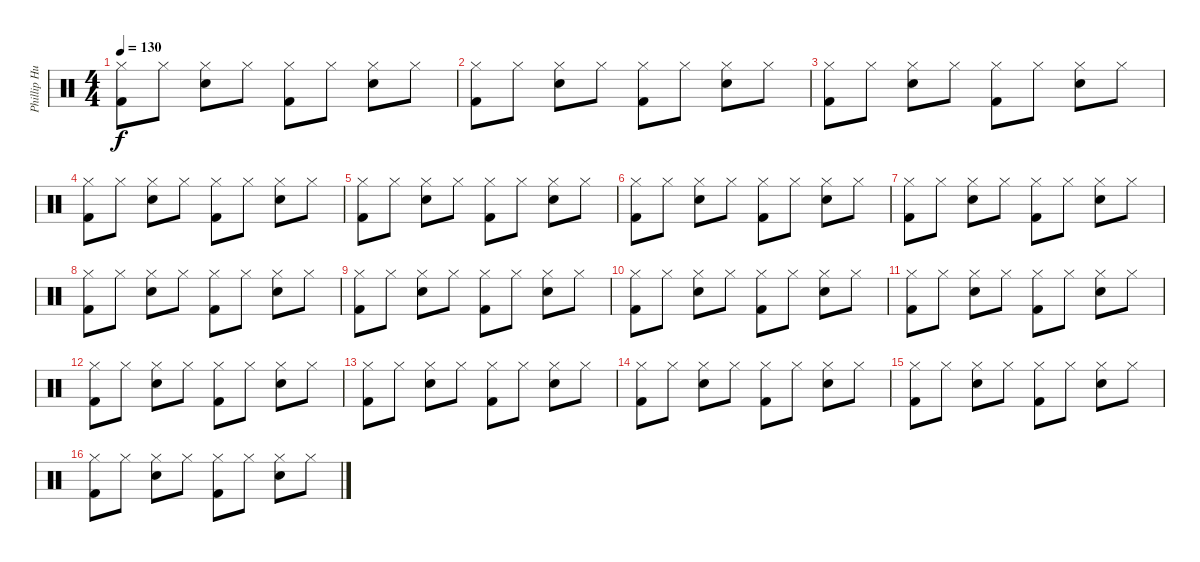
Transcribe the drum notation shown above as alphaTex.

\track ("Phillip Hungh" "Phillip Hu") {instrument percussion}
\staff {score}
\articulation defaults
\ts (4 4)
\tempo 130
\clef neutral
\ks c
("Hi-Hat (closed)" "Kick (hit) 2").8{dy f} "Hi-Hat (closed)".8 ("Hi-Hat (closed)" "Snare (hit) 2").8 "Hi-Hat (closed)".8 ("Hi-Hat (closed)" "Kick (hit) 2").8 "Hi-Hat (closed)".8 ("Hi-Hat (closed)" "Snare (hit) 2").8 "Hi-Hat (closed)".8 |
("Hi-Hat (closed)" "Kick (hit) 2").8 "Hi-Hat (closed)".8 ("Hi-Hat (closed)" "Snare (hit) 2").8 "Hi-Hat (closed)".8 ("Hi-Hat (closed)" "Kick (hit) 2").8 "Hi-Hat (closed)".8 ("Hi-Hat (closed)" "Snare (hit) 2").8 "Hi-Hat (closed)".8 |
("Hi-Hat (closed)" "Kick (hit) 2").8 "Hi-Hat (closed)".8 ("Hi-Hat (closed)" "Snare (hit) 2").8 "Hi-Hat (closed)".8 ("Hi-Hat (closed)" "Kick (hit) 2").8 "Hi-Hat (closed)".8 ("Hi-Hat (closed)" "Snare (hit) 2").8 "Hi-Hat (closed)".8 |
("Hi-Hat (closed)" "Kick (hit) 2").8 "Hi-Hat (closed)".8 ("Hi-Hat (closed)" "Snare (hit) 2").8 "Hi-Hat (closed)".8 ("Hi-Hat (closed)" "Kick (hit) 2").8 "Hi-Hat (closed)".8 ("Hi-Hat (closed)" "Snare (hit) 2").8 "Hi-Hat (closed)".8 |
("Hi-Hat (closed)" "Kick (hit) 2").8 "Hi-Hat (closed)".8 ("Hi-Hat (closed)" "Snare (hit) 2").8 "Hi-Hat (closed)".8 ("Hi-Hat (closed)" "Kick (hit) 2").8 "Hi-Hat (closed)".8 ("Hi-Hat (closed)" "Snare (hit) 2").8 "Hi-Hat (closed)".8 |
("Hi-Hat (closed)" "Kick (hit) 2").8 "Hi-Hat (closed)".8 ("Hi-Hat (closed)" "Snare (hit) 2").8 "Hi-Hat (closed)".8 ("Hi-Hat (closed)" "Kick (hit) 2").8 "Hi-Hat (closed)".8 ("Hi-Hat (closed)" "Snare (hit) 2").8 "Hi-Hat (closed)".8 |
("Hi-Hat (closed)" "Kick (hit) 2").8 "Hi-Hat (closed)".8 ("Hi-Hat (closed)" "Snare (hit) 2").8 "Hi-Hat (closed)".8 ("Hi-Hat (closed)" "Kick (hit) 2").8 "Hi-Hat (closed)".8 ("Hi-Hat (closed)" "Snare (hit) 2").8 "Hi-Hat (closed)".8 |
("Hi-Hat (closed)" "Kick (hit) 2").8 "Hi-Hat (closed)".8 ("Hi-Hat (closed)" "Snare (hit) 2").8 "Hi-Hat (closed)".8 ("Hi-Hat (closed)" "Kick (hit) 2").8 "Hi-Hat (closed)".8 ("Hi-Hat (closed)" "Snare (hit) 2").8 "Hi-Hat (closed)".8 |
("Hi-Hat (closed)" "Kick (hit) 2").8 "Hi-Hat (closed)".8 ("Hi-Hat (closed)" "Snare (hit) 2").8 "Hi-Hat (closed)".8 ("Hi-Hat (closed)" "Kick (hit) 2").8 "Hi-Hat (closed)".8 ("Hi-Hat (closed)" "Snare (hit) 2").8 "Hi-Hat (closed)".8 |
("Hi-Hat (closed)" "Kick (hit) 2").8 "Hi-Hat (closed)".8 ("Hi-Hat (closed)" "Snare (hit) 2").8 "Hi-Hat (closed)".8 ("Hi-Hat (closed)" "Kick (hit) 2").8 "Hi-Hat (closed)".8 ("Hi-Hat (closed)" "Snare (hit) 2").8 "Hi-Hat (closed)".8 |
("Hi-Hat (closed)" "Kick (hit) 2").8 "Hi-Hat (closed)".8 ("Hi-Hat (closed)" "Snare (hit) 2").8 "Hi-Hat (closed)".8 ("Hi-Hat (closed)" "Kick (hit) 2").8 "Hi-Hat (closed)".8 ("Hi-Hat (closed)" "Snare (hit) 2").8 "Hi-Hat (closed)".8 |
("Hi-Hat (closed)" "Kick (hit) 2").8 "Hi-Hat (closed)".8 ("Hi-Hat (closed)" "Snare (hit) 2").8 "Hi-Hat (closed)".8 ("Hi-Hat (closed)" "Kick (hit) 2").8 "Hi-Hat (closed)".8 ("Hi-Hat (closed)" "Snare (hit) 2").8 "Hi-Hat (closed)".8 |
("Hi-Hat (closed)" "Kick (hit) 2").8 "Hi-Hat (closed)".8 ("Hi-Hat (closed)" "Snare (hit) 2").8 "Hi-Hat (closed)".8 ("Hi-Hat (closed)" "Kick (hit) 2").8 "Hi-Hat (closed)".8 ("Hi-Hat (closed)" "Snare (hit) 2").8 "Hi-Hat (closed)".8 |
("Hi-Hat (closed)" "Kick (hit) 2").8 "Hi-Hat (closed)".8 ("Hi-Hat (closed)" "Snare (hit) 2").8 "Hi-Hat (closed)".8 ("Hi-Hat (closed)" "Kick (hit) 2").8 "Hi-Hat (closed)".8 ("Hi-Hat (closed)" "Snare (hit) 2").8 "Hi-Hat (closed)".8 |
("Hi-Hat (closed)" "Kick (hit) 2").8 "Hi-Hat (closed)".8 ("Hi-Hat (closed)" "Snare (hit) 2").8 "Hi-Hat (closed)".8 ("Hi-Hat (closed)" "Kick (hit) 2").8 "Hi-Hat (closed)".8 ("Hi-Hat (closed)" "Snare (hit) 2").8 "Hi-Hat (closed)".8 |
("Hi-Hat (closed)" "Kick (hit) 2").8 "Hi-Hat (closed)".8 ("Hi-Hat (closed)" "Snare (hit) 2").8 "Hi-Hat (closed)".8 ("Hi-Hat (closed)" "Kick (hit) 2").8 "Hi-Hat (closed)".8 ("Hi-Hat (closed)" "Snare (hit) 2").8 "Hi-Hat (closed)".8
